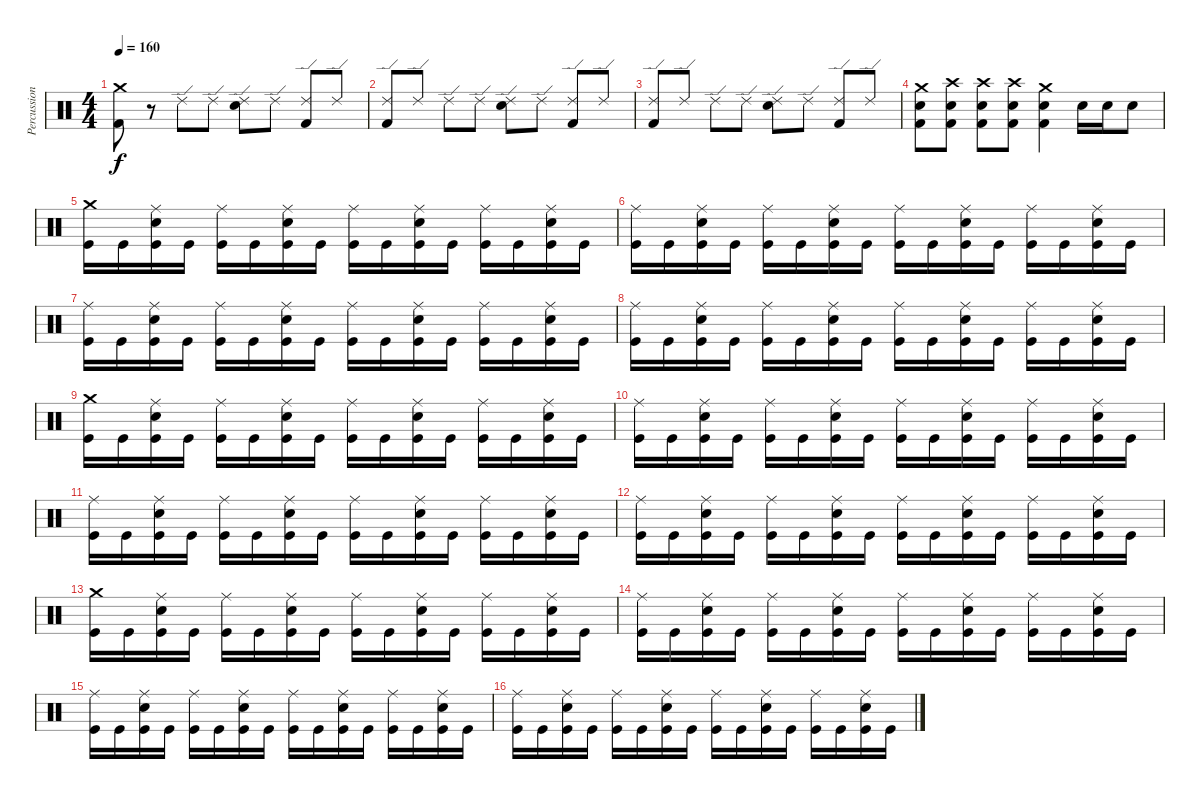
\track ("Percussions" "Percussion") {instrument percussion}
\staff {score}
\articulation defaults
\ts (4 4)
\tempo 160
\clef neutral
\ks c
("Crash medium (hit)" "Kick (hit) 2").8{dy f} r.8 "Ride (edge) 2".8 "Ride (edge) 2".8 ("Ride (edge) 2" "Electric Snare (hit)").8 "Ride (edge) 2".8 ("Ride (edge) 2" "Kick (hit) 2").8 "Ride (edge) 2".8 |
("Ride (edge) 2" "Kick (hit) 2").8 "Ride (edge) 2".8 "Ride (edge) 2".8 "Ride (edge) 2".8 ("Ride (edge) 2" "Electric Snare (hit)").8 "Ride (edge) 2".8 ("Ride (edge) 2" "Kick (hit) 2").8 "Ride (edge) 2".8 |
("Ride (edge) 2" "Kick (hit) 2").8 "Ride (edge) 2".8 "Ride (edge) 2".8 "Ride (edge) 2".8 ("Ride (edge) 2" "Electric Snare (hit)").8 "Ride (edge) 2".8 ("Ride (edge) 2" "Kick (hit) 2").8 "Ride (edge) 2".8 |
("Electric Snare (hit)" "Kick (hit) 2" "Crash medium (hit)").8 ("Snare (hit) 2" "Kick (hit) 2" "Crash high (hit)").8 ("Snare (hit) 2" "Kick (hit) 2" "Crash high (hit)").8 ("Snare (hit) 2" "Kick (hit) 2" "Crash high (hit)").8 ("Crash medium (hit)" "Electric Snare (hit)" "Kick (hit) 2").4 "Snare (hit) 2".16 "Snare (hit) 2".16 "Snare (hit) 2".8 |
("Kick (hit)" "Crash medium (hit)").16 "Kick (hit)".16 ("Kick (hit)" "Snare (hit) 2" "Ride (middle)").16 "Kick (hit)".16 ("Kick (hit)" "Ride (middle)").16 "Kick (hit)".16 ("Kick (hit)" "Snare (hit) 2" "Ride (middle)").16 "Kick (hit)".16 ("Kick (hit)" "Ride (middle)").16 "Kick (hit)".16 ("Kick (hit)" "Snare (hit) 2" "Ride (middle)").16 "Kick (hit)".16 ("Kick (hit)" "Ride (middle)").16 "Kick (hit)".16 ("Kick (hit)" "Snare (hit) 2" "Ride (middle)").16 "Kick (hit)".16 |
("Kick (hit)" "Ride (middle)").16 "Kick (hit)".16 ("Kick (hit)" "Snare (hit) 2" "Ride (middle)").16 "Kick (hit)".16 ("Kick (hit)" "Ride (middle)").16 "Kick (hit)".16 ("Kick (hit)" "Snare (hit) 2" "Ride (middle)").16 "Kick (hit)".16 ("Kick (hit)" "Ride (middle)").16 "Kick (hit)".16 ("Kick (hit)" "Snare (hit) 2" "Ride (middle)").16 "Kick (hit)".16 ("Kick (hit)" "Ride (middle)").16 "Kick (hit)".16 ("Kick (hit)" "Snare (hit) 2" "Ride (middle)").16 "Kick (hit)".16 |
("Kick (hit)" "Ride (middle)").16 "Kick (hit)".16 ("Kick (hit)" "Snare (hit) 2" "Ride (middle)").16 "Kick (hit)".16 ("Kick (hit)" "Ride (middle)").16 "Kick (hit)".16 ("Kick (hit)" "Snare (hit) 2" "Ride (middle)").16 "Kick (hit)".16 ("Kick (hit)" "Ride (middle)").16 "Kick (hit)".16 ("Kick (hit)" "Snare (hit) 2" "Ride (middle)").16 "Kick (hit)".16 ("Kick (hit)" "Ride (middle)").16 "Kick (hit)".16 ("Kick (hit)" "Snare (hit) 2" "Ride (middle)").16 "Kick (hit)".16 |
("Kick (hit)" "Ride (middle)").16 "Kick (hit)".16 ("Kick (hit)" "Snare (hit) 2" "Ride (middle)").16 "Kick (hit)".16 ("Kick (hit)" "Ride (middle)").16 "Kick (hit)".16 ("Kick (hit)" "Snare (hit) 2" "Ride (middle)").16 "Kick (hit)".16 ("Kick (hit)" "Ride (middle)").16 "Kick (hit)".16 ("Kick (hit)" "Snare (hit) 2" "Ride (middle)").16 "Kick (hit)".16 ("Kick (hit)" "Ride (middle)").16 "Kick (hit)".16 ("Kick (hit)" "Snare (hit) 2" "Ride (middle)").16 "Kick (hit)".16 |
("Kick (hit)" "Crash medium (hit)").16 "Kick (hit)".16 ("Kick (hit)" "Snare (hit) 2" "Ride (middle)").16 "Kick (hit)".16 ("Kick (hit)" "Ride (middle)").16 "Kick (hit)".16 ("Kick (hit)" "Snare (hit) 2" "Ride (middle)").16 "Kick (hit)".16 ("Kick (hit)" "Ride (middle)").16 "Kick (hit)".16 ("Kick (hit)" "Snare (hit) 2" "Ride (middle)").16 "Kick (hit)".16 ("Kick (hit)" "Ride (middle)").16 "Kick (hit)".16 ("Kick (hit)" "Snare (hit) 2" "Ride (middle)").16 "Kick (hit)".16 |
("Kick (hit)" "Ride (middle)").16 "Kick (hit)".16 ("Kick (hit)" "Snare (hit) 2" "Ride (middle)").16 "Kick (hit)".16 ("Kick (hit)" "Ride (middle)").16 "Kick (hit)".16 ("Kick (hit)" "Snare (hit) 2" "Ride (middle)").16 "Kick (hit)".16 ("Kick (hit)" "Ride (middle)").16 "Kick (hit)".16 ("Kick (hit)" "Snare (hit) 2" "Ride (middle)").16 "Kick (hit)".16 ("Kick (hit)" "Ride (middle)").16 "Kick (hit)".16 ("Kick (hit)" "Snare (hit) 2" "Ride (middle)").16 "Kick (hit)".16 |
("Kick (hit)" "Ride (middle)").16 "Kick (hit)".16 ("Kick (hit)" "Snare (hit) 2" "Ride (middle)").16 "Kick (hit)".16 ("Kick (hit)" "Ride (middle)").16 "Kick (hit)".16 ("Kick (hit)" "Snare (hit) 2" "Ride (middle)").16 "Kick (hit)".16 ("Kick (hit)" "Ride (middle)").16 "Kick (hit)".16 ("Kick (hit)" "Snare (hit) 2" "Ride (middle)").16 "Kick (hit)".16 ("Kick (hit)" "Ride (middle)").16 "Kick (hit)".16 ("Kick (hit)" "Snare (hit) 2" "Ride (middle)").16 "Kick (hit)".16 |
("Kick (hit)" "Ride (middle)").16 "Kick (hit)".16 ("Kick (hit)" "Snare (hit) 2" "Ride (middle)").16 "Kick (hit)".16 ("Kick (hit)" "Ride (middle)").16 "Kick (hit)".16 ("Kick (hit)" "Snare (hit) 2" "Ride (middle)").16 "Kick (hit)".16 ("Kick (hit)" "Ride (middle)").16 "Kick (hit)".16 ("Kick (hit)" "Snare (hit) 2" "Ride (middle)").16 "Kick (hit)".16 ("Kick (hit)" "Ride (middle)").16 "Kick (hit)".16 ("Kick (hit)" "Snare (hit) 2" "Ride (middle)").16 "Kick (hit)".16 |
("Kick (hit)" "Crash medium (hit)").16 "Kick (hit)".16 ("Kick (hit)" "Snare (hit) 2" "Ride (middle)").16 "Kick (hit)".16 ("Kick (hit)" "Ride (middle)").16 "Kick (hit)".16 ("Kick (hit)" "Snare (hit) 2" "Ride (middle)").16 "Kick (hit)".16 ("Kick (hit)" "Ride (middle)").16 "Kick (hit)".16 ("Kick (hit)" "Snare (hit) 2" "Ride (middle)").16 "Kick (hit)".16 ("Kick (hit)" "Ride (middle)").16 "Kick (hit)".16 ("Kick (hit)" "Snare (hit) 2" "Ride (middle)").16 "Kick (hit)".16 |
("Kick (hit)" "Ride (middle)").16 "Kick (hit)".16 ("Kick (hit)" "Snare (hit) 2" "Ride (middle)").16 "Kick (hit)".16 ("Kick (hit)" "Ride (middle)").16 "Kick (hit)".16 ("Kick (hit)" "Snare (hit) 2" "Ride (middle)").16 "Kick (hit)".16 ("Kick (hit)" "Ride (middle)").16 "Kick (hit)".16 ("Kick (hit)" "Snare (hit) 2" "Ride (middle)").16 "Kick (hit)".16 ("Kick (hit)" "Ride (middle)").16 "Kick (hit)".16 ("Kick (hit)" "Snare (hit) 2" "Ride (middle)").16 "Kick (hit)".16 |
("Kick (hit)" "Ride (middle)").16 "Kick (hit)".16 ("Kick (hit)" "Snare (hit) 2" "Ride (middle)").16 "Kick (hit)".16 ("Kick (hit)" "Ride (middle)").16 "Kick (hit)".16 ("Kick (hit)" "Snare (hit) 2" "Ride (middle)").16 "Kick (hit)".16 ("Kick (hit)" "Ride (middle)").16 "Kick (hit)".16 ("Kick (hit)" "Snare (hit) 2" "Ride (middle)").16 "Kick (hit)".16 ("Kick (hit)" "Ride (middle)").16 "Kick (hit)".16 ("Kick (hit)" "Snare (hit) 2" "Ride (middle)").16 "Kick (hit)".16 |
("Kick (hit)" "Ride (middle)").16 "Kick (hit)".16 ("Kick (hit)" "Snare (hit) 2" "Ride (middle)").16 "Kick (hit)".16 ("Kick (hit)" "Ride (middle)").16 "Kick (hit)".16 ("Kick (hit)" "Snare (hit) 2" "Ride (middle)").16 "Kick (hit)".16 ("Kick (hit)" "Ride (middle)").16 "Kick (hit)".16 ("Kick (hit)" "Snare (hit) 2" "Ride (middle)").16 "Kick (hit)".16 ("Kick (hit)" "Ride (middle)").16 "Kick (hit)".16 ("Kick (hit)" "Snare (hit) 2" "Ride (middle)").16 "Kick (hit)".16
